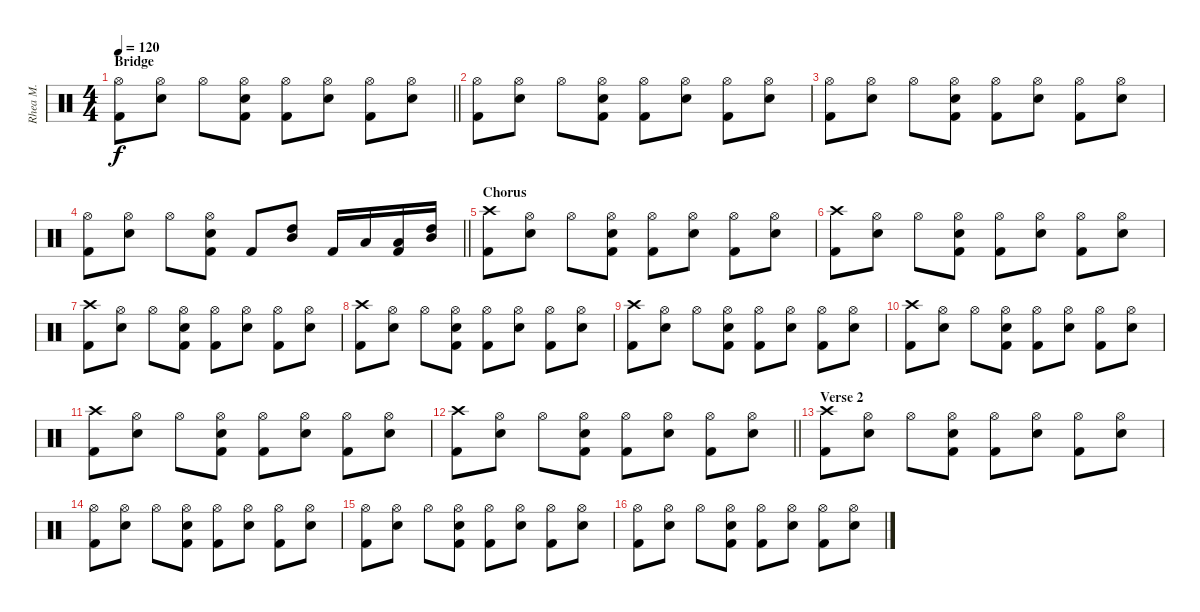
\track ("Rhea M." "Rhea M.") {instrument percussion}
\staff {score}
\articulation defaults
\ts (4 4)
\section ("" "Bridge")
\tempo 120
\clef neutral
\barLineRight lightlight
\ks c
("Hi-Hat (open)" "Kick (hit) 2").8{dy f} ("Hi-Hat (open)" "Electric Snare (hit)").8 "Hi-Hat (open)".8 ("Hi-Hat (open)" "Electric Snare (hit)" "Kick (hit) 2").8 ("Hi-Hat (open)" "Kick (hit) 2").8 ("Hi-Hat (open)" "Electric Snare (hit)").8 ("Hi-Hat (open)" "Kick (hit) 2").8 ("Hi-Hat (open)" "Electric Snare (hit)").8 |
\section ("" "")
("Hi-Hat (open)" "Kick (hit) 2").8 ("Hi-Hat (open)" "Electric Snare (hit)").8 "Hi-Hat (open)".8 ("Hi-Hat (open)" "Electric Snare (hit)" "Kick (hit) 2").8 ("Hi-Hat (open)" "Kick (hit) 2").8 ("Hi-Hat (open)" "Electric Snare (hit)").8 ("Hi-Hat (open)" "Kick (hit) 2").8 ("Hi-Hat (open)" "Electric Snare (hit)").8 |
("Hi-Hat (open)" "Kick (hit) 2").8 ("Hi-Hat (open)" "Electric Snare (hit)").8 "Hi-Hat (open)".8 ("Hi-Hat (open)" "Electric Snare (hit)" "Kick (hit) 2").8 ("Hi-Hat (open)" "Kick (hit) 2").8 ("Hi-Hat (open)" "Electric Snare (hit)").8 ("Hi-Hat (open)" "Kick (hit) 2").8 ("Hi-Hat (open)" "Electric Snare (hit)").8 |
\barLineRight lightlight
("Hi-Hat (open)" "Kick (hit) 2").8 ("Hi-Hat (open)" "Electric Snare (hit)").8 "Hi-Hat (open)".8 ("Hi-Hat (open)" "Electric Snare (hit)" "Kick (hit) 2").8 "Kick (hit) 2".8 ("Mid Tom (hit)" "High Tom (hit)").8 "Kick (hit) 2".16 "Low Tom (hit)".16 ("Low Floor Tom (hit)" "Kick (hit) 2").16 ("High Tom (hit)" "Mid Tom (hit)").16 |
\section ("" "Chorus")
("Crash high (hit)" "Kick (hit) 2").8 ("Hi-Hat (open)" "Electric Snare (hit)").8 "Hi-Hat (open)".8 ("Hi-Hat (open)" "Electric Snare (hit)" "Kick (hit) 2").8 ("Hi-Hat (open)" "Kick (hit) 2").8 ("Hi-Hat (open)" "Electric Snare (hit)").8 ("Hi-Hat (open)" "Kick (hit) 2").8 ("Hi-Hat (open)" "Electric Snare (hit)").8 |
("Crash high (hit)" "Kick (hit) 2").8 ("Hi-Hat (open)" "Electric Snare (hit)").8 "Hi-Hat (open)".8 ("Hi-Hat (open)" "Electric Snare (hit)" "Kick (hit) 2").8 ("Hi-Hat (open)" "Kick (hit) 2").8 ("Hi-Hat (open)" "Electric Snare (hit)").8 ("Hi-Hat (open)" "Kick (hit) 2").8 ("Hi-Hat (open)" "Electric Snare (hit)").8 |
("Crash high (hit)" "Kick (hit) 2").8 ("Hi-Hat (open)" "Electric Snare (hit)").8 "Hi-Hat (open)".8 ("Hi-Hat (open)" "Electric Snare (hit)" "Kick (hit) 2").8 ("Hi-Hat (open)" "Kick (hit) 2").8 ("Hi-Hat (open)" "Electric Snare (hit)").8 ("Hi-Hat (open)" "Kick (hit) 2").8 ("Hi-Hat (open)" "Electric Snare (hit)").8 |
("Crash high (hit)" "Kick (hit) 2").8 ("Hi-Hat (open)" "Electric Snare (hit)").8 "Hi-Hat (open)".8 ("Hi-Hat (open)" "Electric Snare (hit)" "Kick (hit) 2").8 ("Hi-Hat (open)" "Kick (hit) 2").8 ("Hi-Hat (open)" "Electric Snare (hit)").8 ("Hi-Hat (open)" "Kick (hit) 2").8 ("Hi-Hat (open)" "Electric Snare (hit)").8 |
("Crash high (hit)" "Kick (hit) 2").8 ("Hi-Hat (open)" "Electric Snare (hit)").8 "Hi-Hat (open)".8 ("Hi-Hat (open)" "Electric Snare (hit)" "Kick (hit) 2").8 ("Hi-Hat (open)" "Kick (hit) 2").8 ("Hi-Hat (open)" "Electric Snare (hit)").8 ("Hi-Hat (open)" "Kick (hit) 2").8 ("Hi-Hat (open)" "Electric Snare (hit)").8 |
("Crash high (hit)" "Kick (hit) 2").8 ("Hi-Hat (open)" "Electric Snare (hit)").8 "Hi-Hat (open)".8 ("Hi-Hat (open)" "Electric Snare (hit)" "Kick (hit) 2").8 ("Hi-Hat (open)" "Kick (hit) 2").8 ("Hi-Hat (open)" "Electric Snare (hit)").8 ("Hi-Hat (open)" "Kick (hit) 2").8 ("Hi-Hat (open)" "Electric Snare (hit)").8 |
("Crash high (hit)" "Kick (hit) 2").8 ("Hi-Hat (open)" "Electric Snare (hit)").8 "Hi-Hat (open)".8 ("Hi-Hat (open)" "Electric Snare (hit)" "Kick (hit) 2").8 ("Hi-Hat (open)" "Kick (hit) 2").8 ("Hi-Hat (open)" "Electric Snare (hit)").8 ("Hi-Hat (open)" "Kick (hit) 2").8 ("Hi-Hat (open)" "Electric Snare (hit)").8 |
\barLineRight lightlight
("Crash high (hit)" "Kick (hit) 2").8 ("Hi-Hat (open)" "Electric Snare (hit)").8 "Hi-Hat (open)".8 ("Hi-Hat (open)" "Electric Snare (hit)" "Kick (hit) 2").8 ("Hi-Hat (open)" "Kick (hit) 2").8 ("Hi-Hat (open)" "Electric Snare (hit)").8 ("Hi-Hat (open)" "Kick (hit) 2").8 ("Hi-Hat (open)" "Electric Snare (hit)").8 |
\section ("" "Verse 2")
("Crash high (hit)" "Kick (hit) 2").8 ("Hi-Hat (open)" "Electric Snare (hit)").8 "Hi-Hat (open)".8 ("Hi-Hat (open)" "Electric Snare (hit)" "Kick (hit) 2").8 ("Hi-Hat (open)" "Kick (hit) 2").8 ("Hi-Hat (open)" "Electric Snare (hit)").8 ("Hi-Hat (open)" "Kick (hit) 2").8 ("Hi-Hat (open)" "Electric Snare (hit)").8 |
("Hi-Hat (open)" "Kick (hit) 2").8 ("Hi-Hat (open)" "Electric Snare (hit)").8 "Hi-Hat (open)".8 ("Hi-Hat (open)" "Electric Snare (hit)" "Kick (hit) 2").8 ("Hi-Hat (open)" "Kick (hit) 2").8 ("Hi-Hat (open)" "Electric Snare (hit)").8 ("Hi-Hat (open)" "Kick (hit) 2").8 ("Hi-Hat (open)" "Electric Snare (hit)").8 |
("Hi-Hat (open)" "Kick (hit) 2").8 ("Hi-Hat (open)" "Electric Snare (hit)").8 "Hi-Hat (open)".8 ("Hi-Hat (open)" "Electric Snare (hit)" "Kick (hit) 2").8 ("Hi-Hat (open)" "Kick (hit) 2").8 ("Hi-Hat (open)" "Electric Snare (hit)").8 ("Hi-Hat (open)" "Kick (hit) 2").8 ("Hi-Hat (open)" "Electric Snare (hit)").8 |
("Hi-Hat (open)" "Kick (hit) 2").8 ("Hi-Hat (open)" "Electric Snare (hit)").8 "Hi-Hat (open)".8 ("Hi-Hat (open)" "Electric Snare (hit)" "Kick (hit) 2").8 ("Hi-Hat (open)" "Kick (hit) 2").8 ("Hi-Hat (open)" "Electric Snare (hit)").8 ("Hi-Hat (open)" "Kick (hit) 2").8 ("Hi-Hat (open)" "Electric Snare (hit)").8
